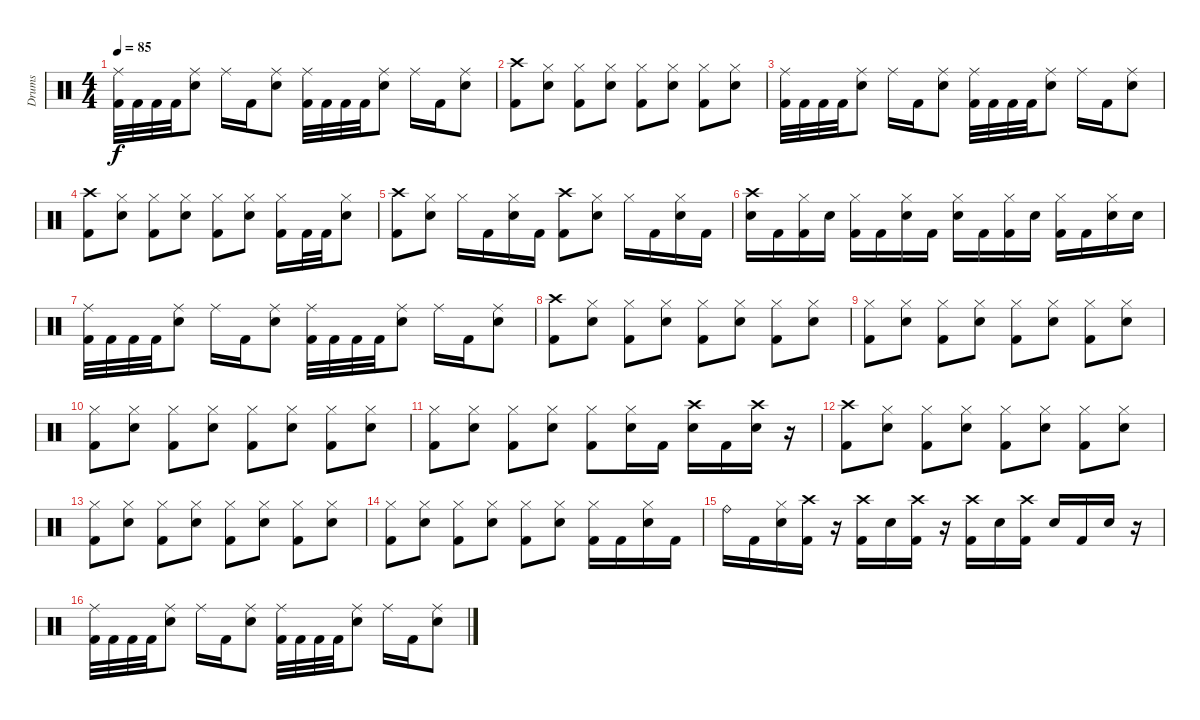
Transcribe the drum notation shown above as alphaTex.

\track ("Drums" "Drums") {instrument percussion}
\staff {score}
\articulation defaults
\ts (4 4)
\tempo 85
\clef neutral
\ks c
("Ride (middle)" "Kick (hit) 2").32{dy f} "Kick (hit) 2".32 "Kick (hit) 2".32 "Kick (hit) 2".32 ("Ride (middle)" "Electric Snare (hit)").8 "Ride (middle)".16 "Kick (hit) 2".16 ("Ride (middle)" "Electric Snare (hit)").8 ("Ride (middle)" "Kick (hit) 2").32 "Kick (hit) 2".32 "Kick (hit) 2".32 "Kick (hit) 2".32 ("Ride (middle)" "Electric Snare (hit)").8 "Ride (middle)".16 "Kick (hit) 2".16 ("Ride (middle)" "Electric Snare (hit)").8 |
("Crash high (hit)" "Kick (hit) 2").8 ("Hi-Hat (closed)" "Electric Snare (hit)").8 ("Hi-Hat (closed)" "Kick (hit) 2").8 ("Hi-Hat (closed)" "Electric Snare (hit)").8 ("Hi-Hat (closed)" "Kick (hit) 2").8 ("Hi-Hat (closed)" "Electric Snare (hit)").8 ("Hi-Hat (closed)" "Kick (hit) 2").8 ("Hi-Hat (closed)" "Electric Snare (hit)").8 |
("Ride (middle)" "Kick (hit) 2").32 "Kick (hit) 2".32 "Kick (hit) 2".32 "Kick (hit) 2".32 ("Ride (middle)" "Electric Snare (hit)").8 "Ride (middle)".16 "Kick (hit) 2".16 ("Ride (middle)" "Electric Snare (hit)").8 ("Ride (middle)" "Kick (hit) 2").32 "Kick (hit) 2".32 "Kick (hit) 2".32 "Kick (hit) 2".32 ("Ride (middle)" "Electric Snare (hit)").8 "Ride (middle)".16 "Kick (hit) 2".16 ("Ride (middle)" "Electric Snare (hit)").8 |
("Crash high (hit)" "Kick (hit) 2").8 ("Hi-Hat (closed)" "Electric Snare (hit)").8 ("Hi-Hat (closed)" "Kick (hit) 2").8 ("Hi-Hat (closed)" "Electric Snare (hit)").8 ("Hi-Hat (closed)" "Kick (hit) 2").8 ("Hi-Hat (closed)" "Electric Snare (hit)").8 ("Hi-Hat (closed)" "Kick (hit) 2").16 "Kick (hit) 2".32 "Kick (hit) 2".32 ("Hi-Hat (closed)" "Electric Snare (hit)").8 |
("Crash high (hit)" "Kick (hit) 2").8 ("Hi-Hat (closed)" "Electric Snare (hit)").8 "Hi-Hat (closed)".16 "Kick (hit) 2".16 ("Hi-Hat (closed)" "Electric Snare (hit)").16 "Kick (hit) 2".16 ("Crash high (hit)" "Kick (hit) 2").8 ("Hi-Hat (closed)" "Electric Snare (hit)").8 "Hi-Hat (closed)".16 "Kick (hit) 2".16 ("Hi-Hat (closed)" "Electric Snare (hit)").16 "Kick (hit) 2".16 |
("Crash high (hit)" "Electric Snare (hit)").16 "Kick (hit) 2".16 ("Hi-Hat (closed)" "Kick (hit) 2").16 "Electric Snare (hit)".16 ("Hi-Hat (closed)" "Kick (hit) 2").16 "Kick (hit) 2".16 ("Hi-Hat (closed)" "Electric Snare (hit)").16 "Kick (hit) 2".16 ("Hi-Hat (closed)" "Electric Snare (hit)").16 "Kick (hit) 2".16 ("Hi-Hat (closed)" "Kick (hit) 2").16 "Electric Snare (hit)".16 ("Hi-Hat (closed)" "Kick (hit) 2").16 "Kick (hit) 2".16 ("Hi-Hat (closed)" "Electric Snare (hit)").16 "Electric Snare (hit)".16 |
("Ride (middle)" "Kick (hit) 2").32 "Kick (hit) 2".32 "Kick (hit) 2".32 "Kick (hit) 2".32 ("Ride (middle)" "Electric Snare (hit)").8 "Ride (middle)".16 "Kick (hit) 2".16 ("Ride (middle)" "Electric Snare (hit)").8 ("Ride (middle)" "Kick (hit) 2").32 "Kick (hit) 2".32 "Kick (hit) 2".32 "Kick (hit) 2".32 ("Ride (middle)" "Electric Snare (hit)").8 "Ride (middle)".16 "Kick (hit) 2".16 ("Ride (middle)" "Electric Snare (hit)").8 |
("Crash high (hit)" "Kick (hit) 2").8 ("Hi-Hat (closed)" "Electric Snare (hit)").8 ("Hi-Hat (closed)" "Kick (hit) 2").8 ("Hi-Hat (closed)" "Electric Snare (hit)").8 ("Hi-Hat (closed)" "Kick (hit) 2").8 ("Hi-Hat (closed)" "Electric Snare (hit)").8 ("Hi-Hat (closed)" "Kick (hit) 2").8 ("Hi-Hat (closed)" "Electric Snare (hit)").8 |
("Hi-Hat (closed)" "Kick (hit) 2").8 ("Hi-Hat (closed)" "Electric Snare (hit)").8 ("Hi-Hat (closed)" "Kick (hit) 2").8 ("Hi-Hat (closed)" "Electric Snare (hit)").8 ("Hi-Hat (closed)" "Kick (hit) 2").8 ("Hi-Hat (closed)" "Electric Snare (hit)").8 ("Hi-Hat (closed)" "Kick (hit) 2").8 ("Hi-Hat (closed)" "Electric Snare (hit)").8 |
("Hi-Hat (closed)" "Kick (hit) 2").8 ("Hi-Hat (closed)" "Electric Snare (hit)").8 ("Hi-Hat (closed)" "Kick (hit) 2").8 ("Hi-Hat (closed)" "Electric Snare (hit)").8 ("Hi-Hat (closed)" "Kick (hit) 2").8 ("Hi-Hat (closed)" "Electric Snare (hit)").8 ("Hi-Hat (closed)" "Kick (hit) 2").8 ("Hi-Hat (closed)" "Electric Snare (hit)").8 |
("Hi-Hat (closed)" "Kick (hit) 2").8 ("Hi-Hat (closed)" "Electric Snare (hit)").8 ("Hi-Hat (closed)" "Kick (hit) 2").8 ("Hi-Hat (closed)" "Electric Snare (hit)").8 ("Hi-Hat (closed)" "Kick (hit) 2").8 ("Hi-Hat (closed)" "Electric Snare (hit)").16 "Kick (hit) 2".16 ("Crash high (hit)" "Electric Snare (hit)").16 "Kick (hit) 2".16 ("Crash high (hit)" "Electric Snare (hit)").16 r.16 |
("Crash high (hit)" "Kick (hit) 2").8 ("Hi-Hat (closed)" "Electric Snare (hit)").8 ("Hi-Hat (closed)" "Kick (hit) 2").8 ("Hi-Hat (closed)" "Electric Snare (hit)").8 ("Hi-Hat (closed)" "Kick (hit) 2").8 ("Hi-Hat (closed)" "Electric Snare (hit)").8 ("Hi-Hat (closed)" "Kick (hit) 2").8 ("Hi-Hat (closed)" "Electric Snare (hit)").8 |
("Hi-Hat (closed)" "Kick (hit) 2").8 ("Hi-Hat (closed)" "Electric Snare (hit)").8 ("Hi-Hat (closed)" "Kick (hit) 2").8 ("Hi-Hat (closed)" "Electric Snare (hit)").8 ("Hi-Hat (closed)" "Kick (hit) 2").8 ("Hi-Hat (closed)" "Electric Snare (hit)").8 ("Hi-Hat (closed)" "Kick (hit) 2").8 ("Hi-Hat (closed)" "Electric Snare (hit)").8 |
("Hi-Hat (closed)" "Kick (hit) 2").8 ("Hi-Hat (closed)" "Electric Snare (hit)").8 ("Hi-Hat (closed)" "Kick (hit) 2").8 ("Hi-Hat (closed)" "Electric Snare (hit)").8 ("Hi-Hat (closed)" "Kick (hit) 2").8 ("Hi-Hat (closed)" "Electric Snare (hit)").8 ("Hi-Hat (closed)" "Kick (hit) 2").16 "Kick (hit) 2".16 ("Hi-Hat (closed)" "Electric Snare (hit)").16 "Kick (hit) 2".16 |
"Ride (bell)".16 "Kick (hit) 2".16 ("Hi-Hat (closed)" "Electric Snare (hit)").16 ("Crash high (hit)" "Kick (hit) 2").16 r.16 ("Crash high (hit)" "Kick (hit) 2").16 "Electric Snare (hit)".16 ("Crash high (hit)" "Kick (hit) 2").16 r.16 ("Crash high (hit)" "Kick (hit) 2").16 "Electric Snare (hit)".16 ("Crash high (hit)" "Kick (hit) 2").16 "Electric Snare (hit)".16 "Kick (hit) 2".16 "Electric Snare (hit)".16 r.16 |
("Ride (middle)" "Kick (hit) 2").32 "Kick (hit) 2".32 "Kick (hit) 2".32 "Kick (hit) 2".32 ("Ride (middle)" "Electric Snare (hit)").8 "Ride (middle)".16 "Kick (hit) 2".16 ("Ride (middle)" "Electric Snare (hit)").8 ("Ride (middle)" "Kick (hit) 2").32 "Kick (hit) 2".32 "Kick (hit) 2".32 "Kick (hit) 2".32 ("Ride (middle)" "Electric Snare (hit)").8 "Ride (middle)".16 "Kick (hit) 2".16 ("Ride (middle)" "Electric Snare (hit)").8
